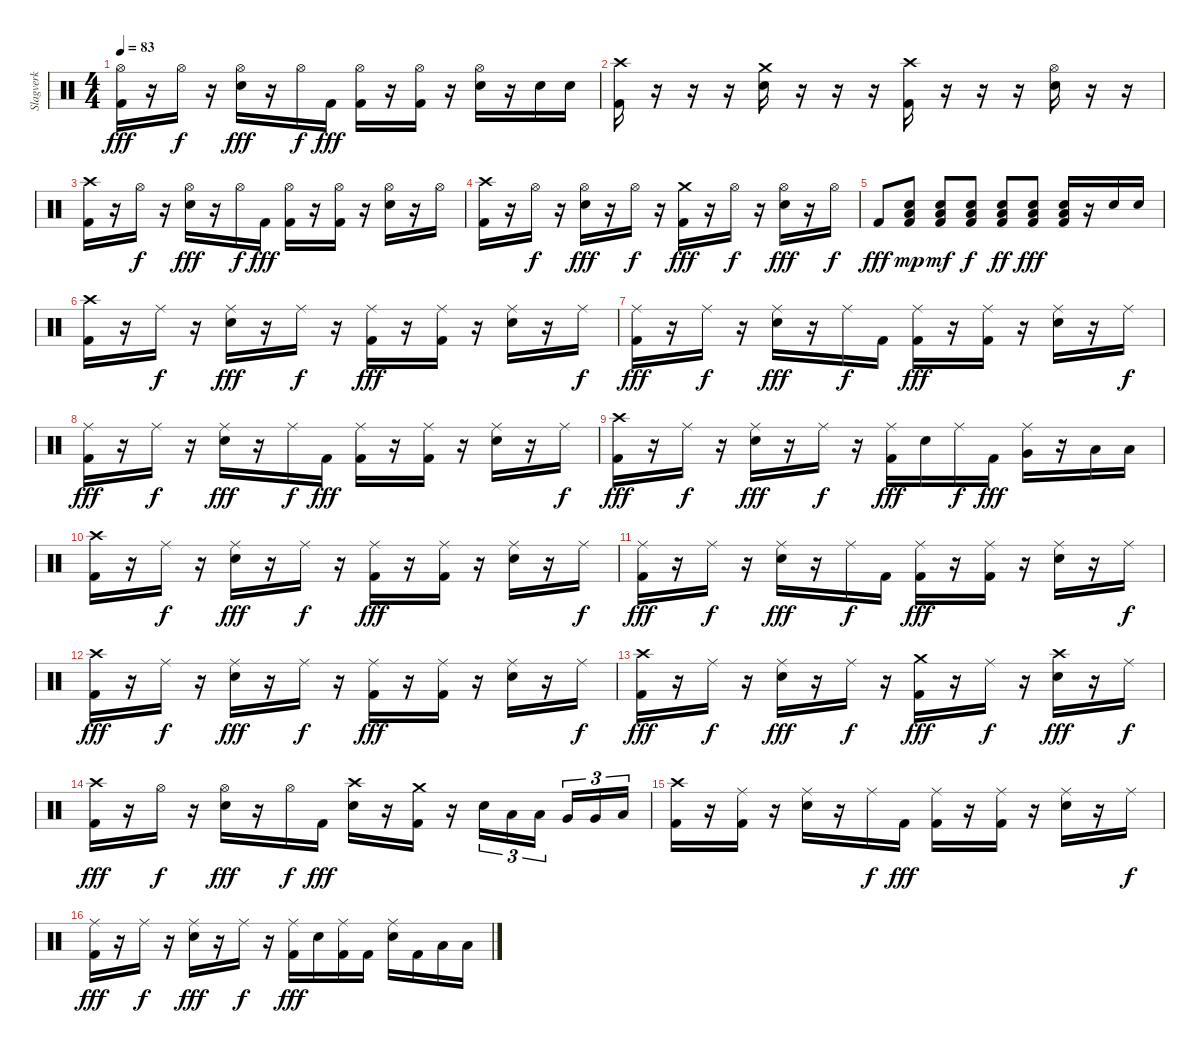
\track ("Slagverk" "Slagverk") {instrument percussion}
\staff {score}
\articulation defaults
\ts (4 4)
\tempo 83
\clef neutral
\ks c
("Hi-Hat (open)" "Kick (hit) 2").16{dy fff} r.16 "Hi-Hat (open)".16{dy f} r.16 ("Hi-Hat (open)" "Electric Snare (hit)").16{dy fff} r.16 "Hi-Hat (open)".16{dy f} "Kick (hit) 2".16{dy fff} ("Hi-Hat (open)" "Kick (hit) 2").16 r.16 ("Hi-Hat (open)" "Kick (hit) 2").16 r.16 ("Hi-Hat (open)" "Electric Snare (hit)").16 r.16 "Electric Snare (hit)".16 "Electric Snare (hit)".16 |
("Crash high (hit)" "Kick (hit) 2").16 r.16 r.16 r.16 ("Crash medium (hit)" "Electric Snare (hit)").16 r.16 r.16 r.16 ("Crash high (hit)" "Kick (hit) 2").16 r.16 r.16 r.16 ("Hi-Hat (open)" "Electric Snare (hit)").16 r.16 r.16 |
("Crash high (hit)" "Kick (hit) 2").16 r.16 "Hi-Hat (open)".16{dy f} r.16 ("Hi-Hat (open)" "Electric Snare (hit)").16{dy fff} r.16 "Hi-Hat (open)".16{dy f} "Kick (hit) 2".16{dy fff} ("Hi-Hat (open)" "Kick (hit) 2").16 r.16 ("Hi-Hat (open)" "Kick (hit) 2").16 r.16 ("Hi-Hat (open)" "Electric Snare (hit)").16 r.16 "Hi-Hat (open)".16 |
("Crash high (hit)" "Kick (hit) 2").16 r.16 "Hi-Hat (open)".16{dy f} r.16 ("Hi-Hat (open)" "Electric Snare (hit)").16{dy fff} r.16 "Hi-Hat (open)".16{dy f} r.16 ("Crash medium (hit)" "Kick (hit) 2").16{dy fff} r.16 "Hi-Hat (open)".16{dy f} r.16 ("Hi-Hat (open)" "Electric Snare (hit)").16{dy fff} r.16 "Hi-Hat (open)".16{dy f} |
"Kick (hit) 2".8{dy fff} ("Low Floor Tom (hit)" "Electric Snare (hit)" "Kick (hit) 2").8{dy mp} ("Low Floor Tom (hit)" "Electric Snare (hit)" "Kick (hit) 2").8{dy mf} ("Low Floor Tom (hit)" "Electric Snare (hit)" "Kick (hit) 2").8{dy f} ("Low Floor Tom (hit)" "Electric Snare (hit)" "Kick (hit) 2").8{dy ff} ("Low Floor Tom (hit)" "Electric Snare (hit)" "Kick (hit) 2").8{dy fff} ("Low Floor Tom (hit)" "Electric Snare (hit)" "Kick (hit) 2").16 r.16 "Electric Snare (hit)".16 "Electric Snare (hit)".16 |
("Crash high (hit)" "Kick (hit) 2").16 r.16 "Ride (middle)".16{dy f} r.16 ("Ride (middle)" "Electric Snare (hit)").16{dy fff} r.16 "Ride (middle)".16{dy f} r.16 ("Ride (middle)" "Kick (hit) 2").16{dy fff} r.16 ("Ride (middle)" "Kick (hit) 2").16 r.16 ("Ride (middle)" "Electric Snare (hit)").16 r.16 "Ride (middle)".16{dy f} |
("Ride (middle)" "Kick (hit) 2").16{dy fff} r.16 "Ride (middle)".16{dy f} r.16 ("Ride (middle)" "Electric Snare (hit)").16{dy fff} r.16 "Ride (middle)".16{dy f} "Kick (hit) 2".16 ("Ride (middle)" "Kick (hit) 2").16{dy fff} r.16 ("Ride (middle)" "Kick (hit) 2").16 r.16 ("Ride (middle)" "Electric Snare (hit)").16 r.16 "Ride (middle)".16{dy f} |
("Ride (middle)" "Kick (hit) 2").16{dy fff} r.16 "Ride (middle)".16{dy f} r.16 ("Ride (middle)" "Electric Snare (hit)").16{dy fff} r.16 "Ride (middle)".16{dy f} "Kick (hit) 2".16{dy fff} ("Ride (middle)" "Kick (hit) 2").16 r.16 ("Ride (middle)" "Kick (hit) 2").16 r.16 ("Ride (middle)" "Electric Snare (hit)").16 r.16 "Ride (middle)".16{dy f} |
("Crash high (hit)" "Kick (hit) 2").16{dy fff} r.16 "Ride (middle)".16{dy f} r.16 ("Ride (middle)" "Electric Snare (hit)").16{dy fff} r.16 "Ride (middle)".16{dy f} r.16 ("Ride (middle)" "Kick (hit) 2").16{dy fff} "Electric Snare (hit)".16 "Ride (middle)".16{dy f} "Kick (hit) 2".16{dy fff} ("Ride (middle)" "Very Low Tom (hit)").16 r.16 "Low Floor Tom (hit)".16 "Low Floor Tom (hit)".16 |
("Crash high (hit)" "Kick (hit) 2").16 r.16 "Ride (middle)".16{dy f} r.16 ("Ride (middle)" "Electric Snare (hit)").16{dy fff} r.16 "Ride (middle)".16{dy f} r.16 ("Ride (middle)" "Kick (hit) 2").16{dy fff} r.16 ("Ride (middle)" "Kick (hit) 2").16 r.16 ("Ride (middle)" "Electric Snare (hit)").16 r.16 "Ride (middle)".16{dy f} |
("Ride (middle)" "Kick (hit) 2").16{dy fff} r.16 "Ride (middle)".16{dy f} r.16 ("Ride (middle)" "Electric Snare (hit)").16{dy fff} r.16 "Ride (middle)".16{dy f} "Kick (hit) 2".16 ("Ride (middle)" "Kick (hit) 2").16{dy fff} r.16 ("Ride (middle)" "Kick (hit) 2").16 r.16 ("Ride (middle)" "Electric Snare (hit)").16 r.16 "Ride (middle)".16{dy f} |
("Crash high (hit)" "Kick (hit) 2").16{dy fff} r.16 "Ride (middle)".16{dy f} r.16 ("Ride (middle)" "Electric Snare (hit)").16{dy fff} r.16 "Ride (middle)".16{dy f} r.16 ("Ride (middle)" "Kick (hit) 2").16{dy fff} r.16 ("Ride (middle)" "Kick (hit) 2").16 r.16 ("Ride (middle)" "Electric Snare (hit)").16 r.16 "Ride (middle)".16{dy f} |
("Crash high (hit)" "Kick (hit) 2").16{dy fff} r.16 "Ride (middle)".16{dy f} r.16 ("Ride (middle)" "Electric Snare (hit)").16{dy fff} r.16 "Ride (middle)".16{dy f} r.16 ("Crash medium (hit)" "Kick (hit) 2").16{dy fff} r.16 "Ride (middle)".16{dy f} r.16 ("Crash high (hit)" "Electric Snare (hit)").16{dy fff} r.16 "Ride (middle)".16{dy f} |
("Crash high (hit)" "Kick (hit) 2").16{dy fff} r.16 "Hi-Hat (open)".16{dy f} r.16 ("Hi-Hat (open)" "Electric Snare (hit)").16{dy fff} r.16 "Hi-Hat (open)".16{dy f} "Kick (hit) 2".16{dy fff} ("Crash high (hit)" "Electric Snare (hit)").16 r.16 ("Crash medium (hit)" "Kick (hit) 2").16 r.16 "Electric Snare (hit)".16{tu (3 2)} "Low Tom (hit)".16{tu (3 2)} "Low Tom (hit)".16{tu (3 2) beam splitsecondary} "Very Low Tom (hit)".16{tu (3 2)} "Very Low Tom (hit)".16{tu (3 2)} "Low Floor Tom (hit)".16{tu (3 2)} |
("Crash high (hit)" "Kick (hit) 2").16 r.16 ("Ride (middle)" "Kick (hit) 2").16 r.16 ("Ride (middle)" "Electric Snare (hit)").16 r.16 "Ride (middle)".16{dy f} "Kick (hit) 2".16{dy fff} ("Ride (middle)" "Kick (hit) 2").16 r.16 ("Ride (middle)" "Kick (hit) 2").16 r.16 ("Ride (middle)" "Electric Snare (hit)").16 r.16 "Ride (middle)".16{dy f} |
("Ride (middle)" "Kick (hit) 2").16{dy fff} r.16 "Ride (middle)".16{dy f} r.16 ("Ride (middle)" "Electric Snare (hit)").16{dy fff} r.16 "Ride (middle)".16{dy f} r.16 ("Ride (middle)" "Kick (hit) 2").16{dy fff} "Electric Snare (hit)".16 ("Ride (middle)" "Kick (hit) 2").16 "Kick (hit) 2".16 ("Ride (middle)" "Electric Snare (hit)").16 "Kick (hit) 2".16 "Low Tom (hit)".16 "Low Tom (hit)".16
